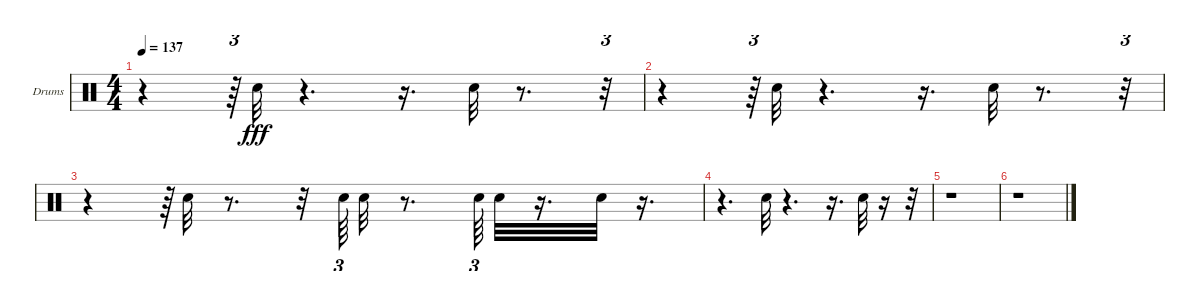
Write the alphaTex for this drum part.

\bracketExtendMode groupsimilarinstruments
\firstSystemTrackNameOrientation horizontal
\otherSystemsTrackNameOrientation horizontal
\track ("Drumkit" "Drums") {instrument percussion}
\staff {score}
\articulation defaults
\ts (4 4)
\tempo 137
\clef neutral
\ks c
r.4{dy fff} r.64{tu (3 2)} "Snare (hit) 2".32 r.4{d} r.16{d} "Snare (hit) 2".32 r.8{d} r.32{tu (3 2)} |
r.4 r.64{tu (3 2)} "Snare (hit) 2".32 r.4{d} r.16{d} "Snare (hit) 2".32 r.8{d} r.32{tu (3 2)} |
r.4 r.64{tu (3 2)} "Snare (hit) 2".32 r.8{d} r.32 "Snare (hit) 2".64{tu (3 2)} "Snare (hit) 2".32 r.8{d} "Snare (hit) 2".64{tu (3 2)} "Snare (hit) 2".32 r.16{d} "Snare (hit) 2".32 r.16{d} |
r.4{d} "Snare (hit) 2".32 r.4{d} r.16{d} "Snare (hit) 2".32 r.16 r.32 |
r.1 |
r.1
